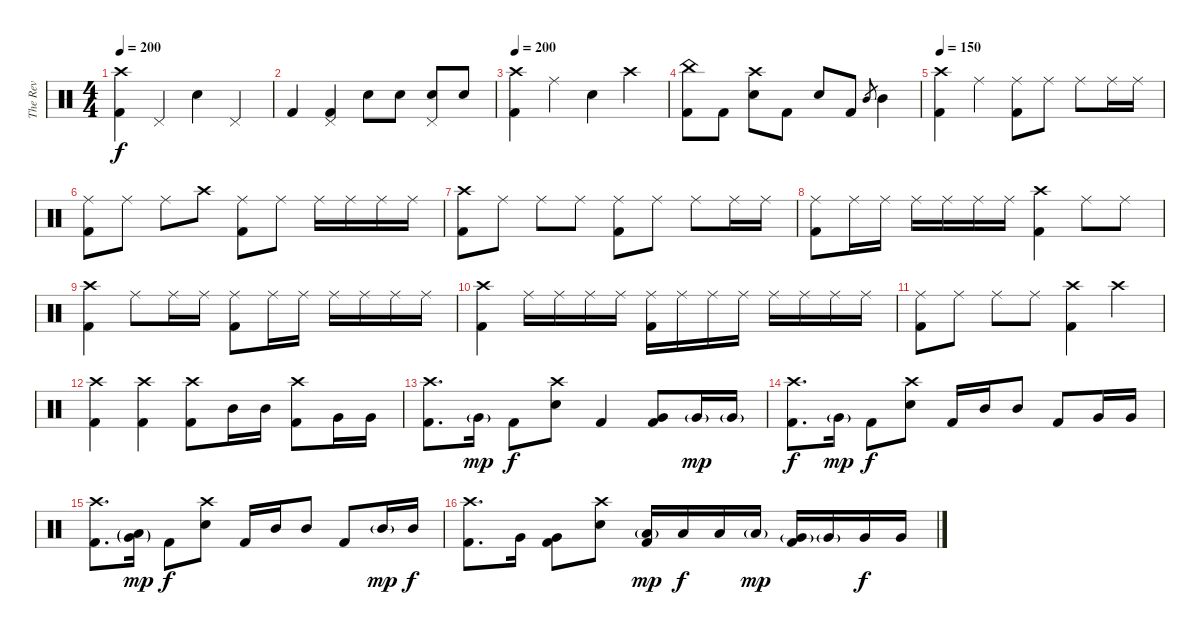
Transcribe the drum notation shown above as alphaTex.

\track ("The Rev" "The Rev") {instrument percussion}
\staff {score}
\articulation defaults
\ts (4 4)
\tempo 200
\clef neutral
\ks c
("Crash high (hit)" "Kick (hit) 2").4{dy f} "Pedal Hi-Hat (hit)".4 "Electric Snare (hit)".4 "Pedal Hi-Hat (hit)".4 |
"Kick (hit) 2".4 ("Pedal Hi-Hat (hit)" "Kick (hit) 2").4 "Electric Snare (hit)".8 "Electric Snare (hit)".8 ("Pedal Hi-Hat (hit)" "Electric Snare (hit)").8 "Electric Snare (hit)".8 |
\tempo 200
("Crash high (hit)" "Kick (hit) 2").4 "Ride (middle)".4 "Electric Snare (hit)".4 "Crash high (hit)".4 |
("China (hit)" "Kick (hit) 2").8 "Kick (hit) 2".8 ("Crash high (hit)" "Electric Snare (hit)").8 "Kick (hit) 2".8 "Electric Snare (hit)".8 "Kick (hit) 2".8 "Mid Tom (hit)".8{gr} "Mid Tom (hit)".4 |
\tempo 150
("Crash high (hit)" "Kick (hit) 2").4 "Ride (middle)".4 ("Ride (middle)" "Kick (hit) 2").8 "Ride (middle)".8 "Ride (middle)".8 "Ride (middle)".16 "Ride (middle)".16 |
("Ride (middle)" "Kick (hit) 2").8 "Ride (middle)".8 "Ride (middle)".8 "Crash high (hit)".8 ("Ride (middle)" "Kick (hit) 2").8 "Ride (middle)".8 "Ride (middle)".16 "Ride (middle)".16 "Ride (middle)".16 "Ride (middle)".16 |
("Crash high (hit)" "Kick (hit) 2").8 "Ride (middle)".8 "Ride (middle)".8 "Ride (middle)".8 ("Ride (middle)" "Kick (hit) 2").8 "Ride (middle)".8 "Ride (middle)".8 "Ride (middle)".16 "Ride (middle)".16 |
("Ride (middle)" "Kick (hit) 2").8 "Ride (middle)".16 "Ride (middle)".16 "Ride (middle)".16 "Ride (middle)".16 "Ride (middle)".16 "Ride (middle)".16 ("Crash high (hit)" "Kick (hit) 2").4 "Ride (middle)".8 "Ride (middle)".8 |
("Crash high (hit)" "Kick (hit) 2").4 "Ride (middle)".8 "Ride (middle)".16 "Ride (middle)".16 ("Ride (middle)" "Kick (hit) 2").8 "Ride (middle)".16 "Ride (middle)".16 "Ride (middle)".16 "Ride (middle)".16 "Ride (middle)".16 "Ride (middle)".16 |
("Crash high (hit)" "Kick (hit) 2").4 "Ride (middle)".16 "Ride (middle)".16 "Ride (middle)".16 "Ride (middle)".16 ("Ride (middle)" "Kick (hit) 2").16 "Ride (middle)".16 "Ride (middle)".16 "Ride (middle)".16 "Ride (middle)".16 "Ride (middle)".16 "Ride (middle)".16 "Ride (middle)".16 |
("Ride (middle)" "Kick (hit) 2").8 "Ride (middle)".8 "Ride (middle)".8 "Ride (middle)".8 ("Crash high (hit)" "Kick (hit) 2").4 "Crash high (hit)".4 |
("Crash high (hit)" "Kick (hit) 2").4 ("Crash high (hit)" "Kick (hit) 2").4 ("Crash high (hit)" "Kick (hit) 2").8 "Mid Tom (hit)".16 "Mid Tom (hit)".16 ("Crash high (hit)" "Kick (hit) 2").8 "Very Low Tom (hit)".16 "Very Low Tom (hit)".16 |
("Crash high (hit)" "Kick (hit) 2").8{d} "Very Low Tom (hit)"{g}.16{dy mp} "Kick (hit) 2".8{dy f} ("Crash high (hit)" "Electric Snare (hit)").8 "Kick (hit) 2".4 ("Very Low Tom (hit)" "Kick (hit) 2").8 "Very Low Tom (hit)"{g}.16{dy mp} "Very Low Tom (hit)"{g}.16 |
("Crash high (hit)" "Kick (hit) 2").8{d dy f} "Very Low Tom (hit)"{g}.16{dy mp} "Kick (hit) 2".8{dy f} ("Crash high (hit)" "Electric Snare (hit)").8 "Kick (hit) 2".16 "Mid Tom (hit)".16 "Mid Tom (hit)".8 "Kick (hit) 2".8 "Very Low Tom (hit)".16 "Very Low Tom (hit)".16 |
("Crash high (hit)" "Kick (hit) 2").8{d} ("Low Tom (hit)"{g} "Very Low Tom (hit)"{g}).16{dy mp} "Kick (hit) 2".8{dy f} ("Crash high (hit)" "Electric Snare (hit)").8 "Kick (hit) 2".16 "Mid Tom (hit)".16 "Mid Tom (hit)".8 "Kick (hit) 2".8 "Mid Tom (hit)"{g}.16{dy mp} "Mid Tom (hit)".16{dy f} |
("Crash high (hit)" "Kick (hit) 2").8{d} "Very Low Tom (hit)".16 ("Very Low Tom (hit)" "Kick (hit) 2").8 ("Crash high (hit)" "Electric Snare (hit)").8 ("Low Tom (hit)"{g} "Kick (hit) 2").16{dy mp} "Low Tom (hit)".16{dy f} "Low Tom (hit)".16 "Low Tom (hit)"{g}.16{dy mp} ("Very Low Tom (hit)"{g} "Kick (hit) 2").16 "Very Low Tom (hit)"{g}.16 "Very Low Tom (hit)".16{dy f} "Very Low Tom (hit)".16
